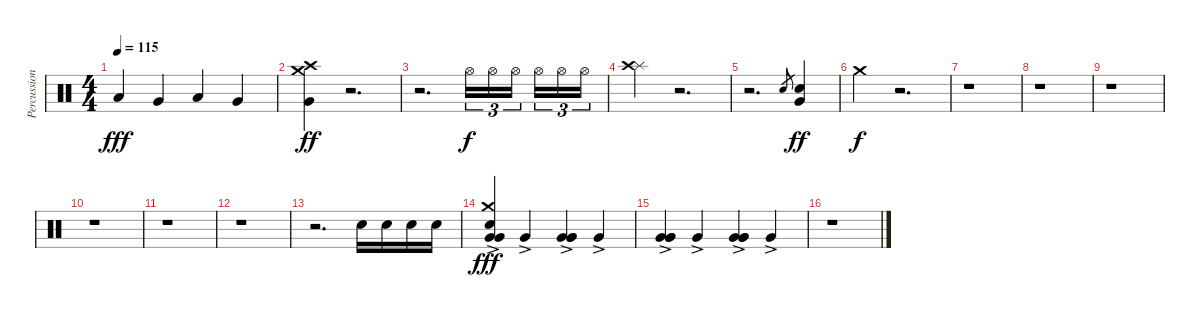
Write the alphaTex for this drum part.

\track ("Percussions" "Percussion") {instrument percussion}
\staff {score}
\articulation defaults
\ts (4 4)
\tempo 115
\clef neutral
\ks c "Low Tom (hit)".4{dy fff} "Very Low Tom (hit)".4 "Low Tom (hit)".4 "Very Low Tom (hit)".4
|
\section ("" "")
("Crash high (hit)" "Crash medium (hit)" "Very Low Tom (hit)").4{dy ff} r.2{d} |
r.2{d} "Hi-Hat (open)".16{tu (3 2) dy f} "Hi-Hat (open)".16{tu (3 2)} "Hi-Hat (open)".16{tu (3 2)} "Hi-Hat (open)".16{tu (3 2)} "Hi-Hat (open)".16{tu (3 2)} "Hi-Hat (open)".16{tu (3 2)} |
("Splash (hit)" "Crash high (hit)").4 r.2{d} |
r.2{d} "Electric Snare (hit)".8{gr} ("Electric Snare (hit)" "Very Low Tom (hit)").4{dy ff} |
"Crash medium (hit)".4{dy f} r.2{d} |
r.1 |
r.1 |
r.1 |
r.1 |
r.1 |
r.1 |
r.2{d} "Electric Snare (hit)".16 "Electric Snare (hit)".16 "Electric Snare (hit)".16 "Electric Snare (hit)".16 |
("Crash medium (hit)" "Electric Snare (hit)" "Very Low Tom (hit)"{ac} "Very Low Tom (hit)"{ac}).4{dy fff} "Very Low Tom (hit)"{ac}.4 ("Very Low Tom (hit)"{ac} "Very Low Tom (hit)"{ac} "Very Low Tom (hit)"{ac}).4 "Very Low Tom (hit)"{ac}.4 |
("Very Low Tom (hit)"{ac} "Very Low Tom (hit)"{ac} "Very Low Tom (hit)"{ac}).4 "Very Low Tom (hit)"{ac}.4 ("Very Low Tom (hit)"{ac} "Very Low Tom (hit)"{ac} "Very Low Tom (hit)"{ac}).4 "Very Low Tom (hit)"{ac}.4 |
r.1
